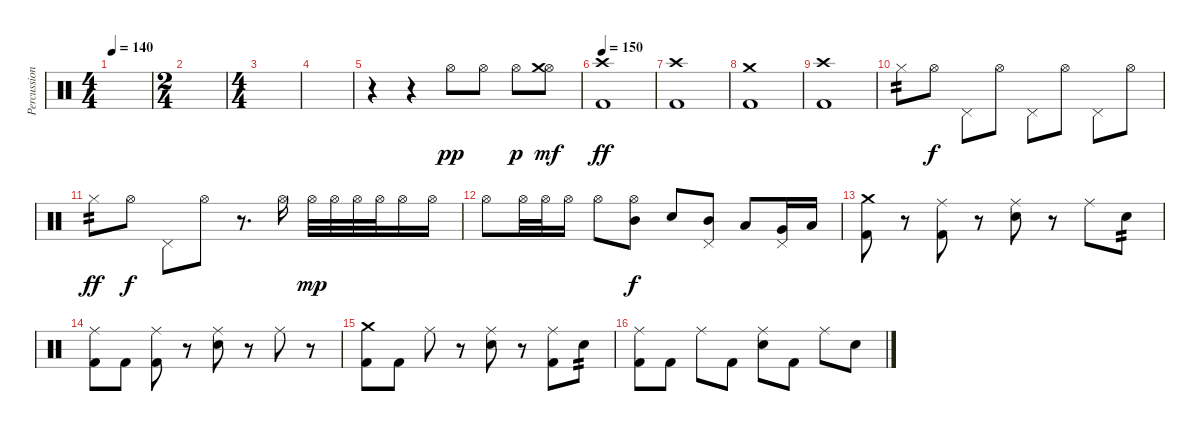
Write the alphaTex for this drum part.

\track ("Percussion" "Percussion") {instrument percussion}
\staff {score}
\articulation defaults
\ts (4 4)
\tempo 140
\clef neutral
\ks c
|
\ts (2 4)
|
\ts (4 4)
|
|
r.4 r.4 "Hi-Hat (open)".8{dy pp} "Hi-Hat (open)".8 "Hi-Hat (open)".8{dy p} ("Hi-Hat (open)" "Crash medium (hit)").8{dy mf} |
\tempo 150
("Crash high (hit)" "Kick (hit) 2").1{dy ff} |
("Crash high (hit)" "Kick (hit) 2").1 |
("Crash medium (hit)" "Kick (hit) 2").1 |
("Crash high (hit)" "Kick (hit) 2").1 |
"Hi-Hat (closed)".8{tp 2} "Hi-Hat (open)".8{dy f} "Pedal Hi-Hat (hit)".8 "Hi-Hat (open)".8 "Pedal Hi-Hat (hit)".8 "Hi-Hat (open)".8 "Pedal Hi-Hat (hit)".8 "Hi-Hat (open)".8 |
"Hi-Hat (closed)".8{tp 2 dy ff} "Hi-Hat (open)".8{dy f} "Pedal Hi-Hat (hit)".8 "Hi-Hat (open)".8 r.8{d} "Hi-Hat (open)".16 "Hi-Hat (open)".32{dy mp} "Hi-Hat (open)".32 "Hi-Hat (open)".32 "Hi-Hat (open)".32 "Hi-Hat (open)".16 "Hi-Hat (open)".16 |
"Hi-Hat (open)".8 "Hi-Hat (open)".32 "Hi-Hat (open)".32 "Hi-Hat (open)".16 "Hi-Hat (open)".8 ("Hi-Hat (open)" "Mid Tom (hit)").8{dy f} "Electric Snare (hit)".8 ("Pedal Hi-Hat (hit)" "Mid Tom (hit)").8 "Low Tom (hit)".8 ("Pedal Hi-Hat (hit)" "Very Low Tom (hit)").16 "Low Floor Tom (hit)".16 |
("Crash medium (hit)" "Kick (hit) 2").8 r.8 ("Ride (middle)" "Kick (hit) 2").8 r.8 ("Ride (middle)" "Electric Snare (hit)").8 r.8 "Ride (middle)".8 "Electric Snare (hit)".8{tp 2} |
("Kick (hit) 2" "Ride (middle)").8 "Kick (hit) 2".8 ("Kick (hit) 2" "Ride (middle)").8 r.8 ("Ride (middle)" "Electric Snare (hit)").8 r.8 "Ride (middle)".8 r.8 |
("Crash medium (hit)" "Kick (hit) 2").8 "Kick (hit) 2".8 "Ride (middle)".8 r.8 ("Ride (middle)" "Electric Snare (hit)").8 r.8 ("Ride (middle)" "Kick (hit) 2").8 "Electric Snare (hit)".8{tp 2} |
("Kick (hit) 2" "Ride (middle)").8 "Kick (hit) 2".8 "Ride (middle)".8 "Kick (hit) 2".8 ("Ride (middle)" "Electric Snare (hit)").8 "Kick (hit) 2".8 "Ride (middle)".8 "Electric Snare (hit)".8
